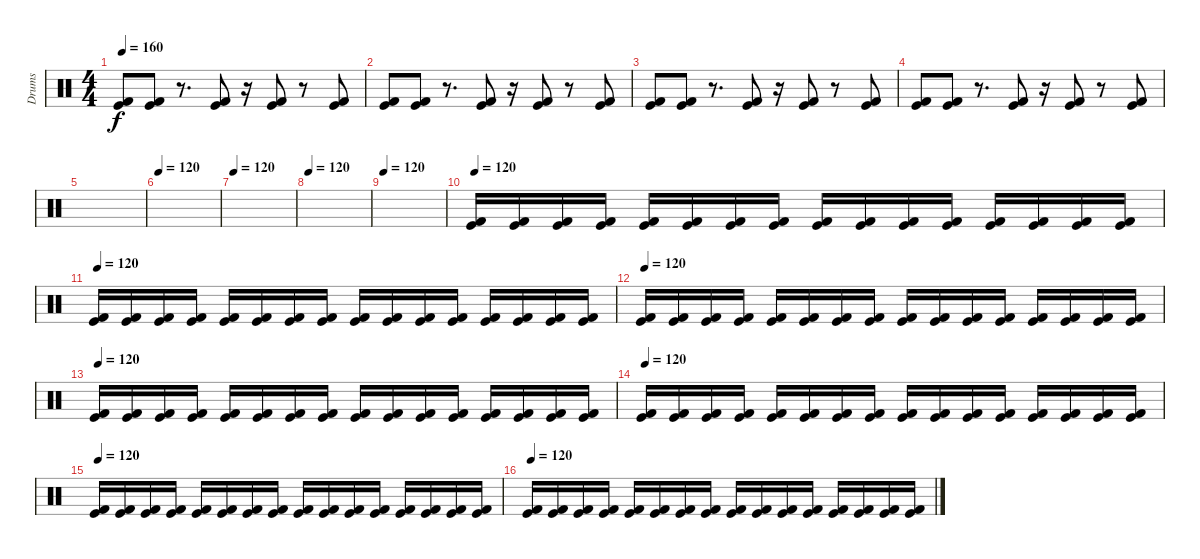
\track ("Drums" "Drums") {instrument percussion}
\staff {score}
\articulation defaults
\ts (4 4)
\tempo 160
\clef neutral
\ks c
("Kick (hit) 2" "Kick (hit)").8{dy f} ("Kick (hit) 2" "Kick (hit)").8 r.8{d} ("Kick (hit) 2" "Kick (hit)").8 r.16 ("Kick (hit) 2" "Kick (hit)").8 r.8 ("Kick (hit) 2" "Kick (hit)").8 |
("Kick (hit) 2" "Kick (hit)").8 ("Kick (hit) 2" "Kick (hit)").8 r.8{d} ("Kick (hit) 2" "Kick (hit)").8 r.16 ("Kick (hit) 2" "Kick (hit)").8 r.8 ("Kick (hit) 2" "Kick (hit)").8 |
("Kick (hit) 2" "Kick (hit)").8 ("Kick (hit) 2" "Kick (hit)").8 r.8{d} ("Kick (hit) 2" "Kick (hit)").8 r.16 ("Kick (hit) 2" "Kick (hit)").8 r.8 ("Kick (hit) 2" "Kick (hit)").8 |
("Kick (hit) 2" "Kick (hit)").8 ("Kick (hit) 2" "Kick (hit)").8 r.8{d} ("Kick (hit) 2" "Kick (hit)").8 r.16 ("Kick (hit) 2" "Kick (hit)").8 r.8 ("Kick (hit) 2" "Kick (hit)").8 |
|
\tempo 120
|
\tempo 120
|
\tempo 120
|
\tempo 120
|
\tempo 120
("Kick (hit) 2" "Kick (hit)").16 ("Kick (hit) 2" "Kick (hit)").16 ("Kick (hit) 2" "Kick (hit)").16 ("Kick (hit) 2" "Kick (hit)").16 ("Kick (hit) 2" "Kick (hit)").16 ("Kick (hit) 2" "Kick (hit)").16 ("Kick (hit) 2" "Kick (hit)").16 ("Kick (hit) 2" "Kick (hit)").16 ("Kick (hit) 2" "Kick (hit)").16 ("Kick (hit) 2" "Kick (hit)").16 ("Kick (hit) 2" "Kick (hit)").16 ("Kick (hit) 2" "Kick (hit)").16 ("Kick (hit) 2" "Kick (hit)").16 ("Kick (hit) 2" "Kick (hit)").16 ("Kick (hit) 2" "Kick (hit)").16 ("Kick (hit) 2" "Kick (hit)").16 |
\tempo 120
("Kick (hit) 2" "Kick (hit)").16 ("Kick (hit) 2" "Kick (hit)").16 ("Kick (hit) 2" "Kick (hit)").16 ("Kick (hit) 2" "Kick (hit)").16 ("Kick (hit) 2" "Kick (hit)").16 ("Kick (hit) 2" "Kick (hit)").16 ("Kick (hit) 2" "Kick (hit)").16 ("Kick (hit) 2" "Kick (hit)").16 ("Kick (hit) 2" "Kick (hit)").16 ("Kick (hit) 2" "Kick (hit)").16 ("Kick (hit) 2" "Kick (hit)").16 ("Kick (hit) 2" "Kick (hit)").16 ("Kick (hit) 2" "Kick (hit)").16 ("Kick (hit) 2" "Kick (hit)").16 ("Kick (hit) 2" "Kick (hit)").16 ("Kick (hit) 2" "Kick (hit)").16 |
\tempo 120
("Kick (hit) 2" "Kick (hit)").16 ("Kick (hit) 2" "Kick (hit)").16 ("Kick (hit) 2" "Kick (hit)").16 ("Kick (hit) 2" "Kick (hit)").16 ("Kick (hit) 2" "Kick (hit)").16 ("Kick (hit) 2" "Kick (hit)").16 ("Kick (hit) 2" "Kick (hit)").16 ("Kick (hit) 2" "Kick (hit)").16 ("Kick (hit) 2" "Kick (hit)").16 ("Kick (hit) 2" "Kick (hit)").16 ("Kick (hit) 2" "Kick (hit)").16 ("Kick (hit) 2" "Kick (hit)").16 ("Kick (hit) 2" "Kick (hit)").16 ("Kick (hit) 2" "Kick (hit)").16 ("Kick (hit) 2" "Kick (hit)").16 ("Kick (hit) 2" "Kick (hit)").16 |
\tempo 120
("Kick (hit) 2" "Kick (hit)").16 ("Kick (hit) 2" "Kick (hit)").16 ("Kick (hit) 2" "Kick (hit)").16 ("Kick (hit) 2" "Kick (hit)").16 ("Kick (hit) 2" "Kick (hit)").16 ("Kick (hit) 2" "Kick (hit)").16 ("Kick (hit) 2" "Kick (hit)").16 ("Kick (hit) 2" "Kick (hit)").16 ("Kick (hit) 2" "Kick (hit)").16 ("Kick (hit) 2" "Kick (hit)").16 ("Kick (hit) 2" "Kick (hit)").16 ("Kick (hit) 2" "Kick (hit)").16 ("Kick (hit) 2" "Kick (hit)").16 ("Kick (hit) 2" "Kick (hit)").16 ("Kick (hit) 2" "Kick (hit)").16 ("Kick (hit) 2" "Kick (hit)").16 |
\tempo 120
("Kick (hit) 2" "Kick (hit)").16 ("Kick (hit) 2" "Kick (hit)").16 ("Kick (hit) 2" "Kick (hit)").16 ("Kick (hit) 2" "Kick (hit)").16 ("Kick (hit) 2" "Kick (hit)").16 ("Kick (hit) 2" "Kick (hit)").16 ("Kick (hit) 2" "Kick (hit)").16 ("Kick (hit) 2" "Kick (hit)").16 ("Kick (hit) 2" "Kick (hit)").16 ("Kick (hit) 2" "Kick (hit)").16 ("Kick (hit) 2" "Kick (hit)").16 ("Kick (hit) 2" "Kick (hit)").16 ("Kick (hit) 2" "Kick (hit)").16 ("Kick (hit) 2" "Kick (hit)").16 ("Kick (hit) 2" "Kick (hit)").16 ("Kick (hit) 2" "Kick (hit)").16 |
\tempo 120
("Kick (hit) 2" "Kick (hit)").16 ("Kick (hit) 2" "Kick (hit)").16 ("Kick (hit) 2" "Kick (hit)").16 ("Kick (hit) 2" "Kick (hit)").16 ("Kick (hit) 2" "Kick (hit)").16 ("Kick (hit) 2" "Kick (hit)").16 ("Kick (hit) 2" "Kick (hit)").16 ("Kick (hit) 2" "Kick (hit)").16 ("Kick (hit) 2" "Kick (hit)").16 ("Kick (hit) 2" "Kick (hit)").16 ("Kick (hit) 2" "Kick (hit)").16 ("Kick (hit) 2" "Kick (hit)").16 ("Kick (hit) 2" "Kick (hit)").16 ("Kick (hit) 2" "Kick (hit)").16 ("Kick (hit) 2" "Kick (hit)").16 ("Kick (hit) 2" "Kick (hit)").16 |
\tempo 120
("Kick (hit) 2" "Kick (hit)").16 ("Kick (hit) 2" "Kick (hit)").16 ("Kick (hit) 2" "Kick (hit)").16 ("Kick (hit) 2" "Kick (hit)").16 ("Kick (hit) 2" "Kick (hit)").16 ("Kick (hit) 2" "Kick (hit)").16 ("Kick (hit) 2" "Kick (hit)").16 ("Kick (hit) 2" "Kick (hit)").16 ("Kick (hit) 2" "Kick (hit)").16 ("Kick (hit) 2" "Kick (hit)").16 ("Kick (hit) 2" "Kick (hit)").16 ("Kick (hit) 2" "Kick (hit)").16 ("Kick (hit) 2" "Kick (hit)").16 ("Kick (hit) 2" "Kick (hit)").16 ("Kick (hit) 2" "Kick (hit)").16 ("Kick (hit) 2" "Kick (hit)").16
